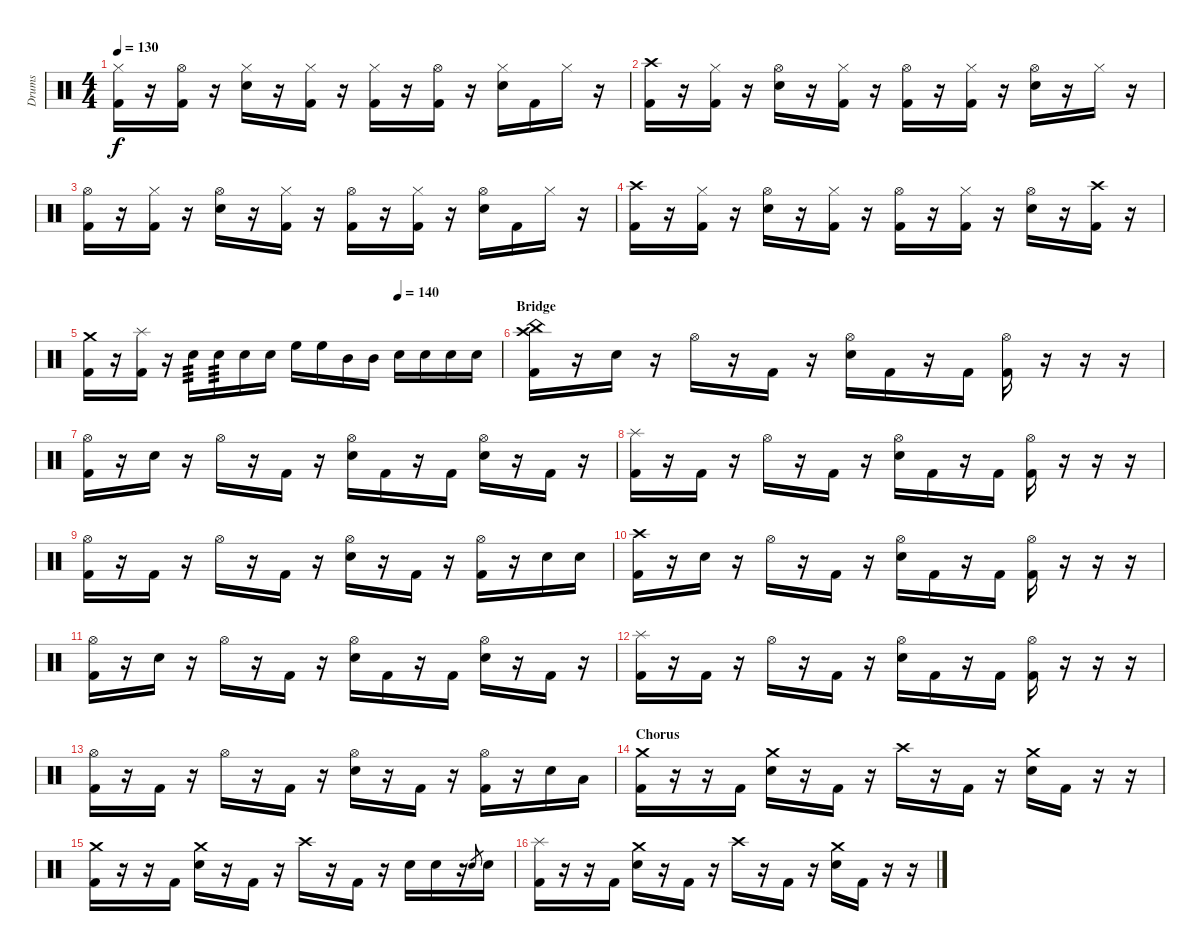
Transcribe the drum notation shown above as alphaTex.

\track ("Drums" "Drums") {instrument percussion}
\staff {score}
\articulation defaults
\ts (4 4)
\tempo 130
\clef neutral
\ks c
("Hi-Hat (closed)" "Kick (hit) 2").16{dy f} r.16 ("Hi-Hat (open)" "Kick (hit) 2").16 r.16 ("Hi-Hat (closed)" "Electric Snare (hit)").16 r.16 ("Hi-Hat (closed)" "Kick (hit) 2").16 r.16 ("Hi-Hat (closed)" "Kick (hit) 2").16 r.16 ("Hi-Hat (open)" "Kick (hit) 2").16 r.16 ("Hi-Hat (closed)" "Electric Snare (hit)").16 "Kick (hit) 2".16 "Hi-Hat (closed)".16 r.16 |
("Crash high (hit)" "Kick (hit) 2").16 r.16 ("Hi-Hat (closed)" "Kick (hit) 2").16 r.16 ("Hi-Hat (open)" "Electric Snare (hit)").16 r.16 ("Hi-Hat (closed)" "Kick (hit) 2").16 r.16 ("Hi-Hat (open)" "Kick (hit) 2").16 r.16 ("Hi-Hat (closed)" "Kick (hit) 2").16 r.16 ("Hi-Hat (open)" "Electric Snare (hit)").16 r.16 "Hi-Hat (closed)".16 r.16 |
("Hi-Hat (open)" "Kick (hit) 2").16 r.16 ("Hi-Hat (closed)" "Kick (hit) 2").16 r.16 ("Hi-Hat (open)" "Electric Snare (hit)").16 r.16 ("Hi-Hat (closed)" "Kick (hit) 2").16 r.16 ("Hi-Hat (open)" "Kick (hit) 2").16 r.16 ("Hi-Hat (closed)" "Kick (hit) 2").16 r.16 ("Hi-Hat (open)" "Electric Snare (hit)").16 "Kick (hit) 2".16 "Hi-Hat (closed)".16 r.16 |
("Crash high (hit)" "Kick (hit) 2").16 r.16 ("Hi-Hat (closed)" "Kick (hit) 2").16 r.16 ("Hi-Hat (open)" "Electric Snare (hit)").16 r.16 ("Hi-Hat (closed)" "Kick (hit) 2").16 r.16 ("Hi-Hat (open)" "Kick (hit) 2").16 r.16 ("Hi-Hat (closed)" "Kick (hit) 2").16 r.16 ("Hi-Hat (open)" "Electric Snare (hit)").16 r.16 ("Crash high (hit)" "Kick (hit) 2").16 r.16 |
\tempo (140 0.75)
("Crash medium (hit)" "Kick (hit) 2").16 r.16 ("Splash (hit)" "Kick (hit) 2").16 r.16 "Electric Snare (hit)".16{tp 3} "Electric Snare (hit)".16{tp 3} "Electric Snare (hit)".16 "Electric Snare (hit)".16 "High Floor Tom (hit)".16 "High Floor Tom (hit)".16 "Mid Tom (hit)".16 "Mid Tom (hit)".16 "Electric Snare (hit)".16 "Electric Snare (hit)".16 "Electric Snare (hit)".16 "Electric Snare (hit)".16 |
\section ("" "Bridge")
("Crash high (hit)" "China (hit)" "Kick (hit) 2").16 r.16 "Electric Snare (hit)".16 r.16 "Hi-Hat (open)".16 r.16 "Kick (hit) 2".16 r.16 ("Hi-Hat (open)" "Electric Snare (hit)").16 "Kick (hit) 2".16 r.16 "Kick (hit) 2".16 ("Hi-Hat (open)" "Kick (hit) 2").16 r.16 r.16 r.16 |
("Hi-Hat (open)" "Kick (hit) 2").16 r.16 "Electric Snare (hit)".16 r.16 "Hi-Hat (open)".16 r.16 "Kick (hit) 2".16 r.16 ("Hi-Hat (open)" "Electric Snare (hit)").16 "Kick (hit) 2".16 r.16 "Kick (hit) 2".16 ("Hi-Hat (open)" "Electric Snare (hit)").16 r.16 "Kick (hit) 2".16 r.16 |
("Splash (hit)" "Kick (hit) 2").16 r.16 "Kick (hit) 2".16 r.16 "Hi-Hat (open)".16 r.16 "Kick (hit) 2".16 r.16 ("Hi-Hat (open)" "Electric Snare (hit)").16 "Kick (hit) 2".16 r.16 "Kick (hit) 2".16 ("Hi-Hat (open)" "Kick (hit) 2").16 r.16 r.16 r.16 |
("Hi-Hat (open)" "Kick (hit) 2").16 r.16 "Kick (hit) 2".16 r.16 "Hi-Hat (open)".16 r.16 "Kick (hit) 2".16 r.16 ("Hi-Hat (open)" "Electric Snare (hit)").16 r.16 "Kick (hit) 2".16 r.16 ("Hi-Hat (open)" "Kick (hit) 2").16 r.16 "Electric Snare (hit)".16 "Electric Snare (hit)".16 |
("Crash high (hit)" "Kick (hit) 2").16 r.16 "Electric Snare (hit)".16 r.16 "Hi-Hat (open)".16 r.16 "Kick (hit) 2".16 r.16 ("Hi-Hat (open)" "Electric Snare (hit)").16 "Kick (hit) 2".16 r.16 "Kick (hit) 2".16 ("Hi-Hat (open)" "Kick (hit) 2").16 r.16 r.16 r.16 |
("Hi-Hat (open)" "Kick (hit) 2").16 r.16 "Electric Snare (hit)".16 r.16 "Hi-Hat (open)".16 r.16 "Kick (hit) 2".16 r.16 ("Hi-Hat (open)" "Electric Snare (hit)").16 "Kick (hit) 2".16 r.16 "Kick (hit) 2".16 ("Hi-Hat (open)" "Electric Snare (hit)").16 r.16 "Kick (hit) 2".16 r.16 |
("Splash (hit)" "Kick (hit) 2").16 r.16 "Kick (hit) 2".16 r.16 "Hi-Hat (open)".16 r.16 "Kick (hit) 2".16 r.16 ("Hi-Hat (open)" "Electric Snare (hit)").16 "Kick (hit) 2".16 r.16 "Kick (hit) 2".16 ("Hi-Hat (open)" "Kick (hit) 2").16 r.16 r.16 r.16 |
("Hi-Hat (open)" "Kick (hit) 2").16 r.16 "Kick (hit) 2".16 r.16 "Hi-Hat (open)".16 r.16 "Kick (hit) 2".16 r.16 ("Hi-Hat (open)" "Electric Snare (hit)").16 r.16 "Kick (hit) 2".16 r.16 ("Hi-Hat (open)" "Kick (hit) 2").16 r.16 "Electric Snare (hit)".16 "Low Tom (hit)".16 |
\section ("" "Chorus")
("Crash medium (hit)" "Kick (hit) 2").16 r.16 r.16 "Kick (hit) 2".16 ("Crash medium (hit)" "Electric Snare (hit)").16 r.16 "Kick (hit) 2".16 r.16 "Crash high (hit)".16 r.16 "Kick (hit) 2".16 r.16 ("Crash medium (hit)" "Electric Snare (hit)").16 "Kick (hit) 2".16 r.16 r.16 |
("Crash medium (hit)" "Kick (hit) 2").16 r.16 r.16 "Kick (hit) 2".16 ("Crash medium (hit)" "Electric Snare (hit)").16 r.16 "Kick (hit) 2".16 r.16 "Crash high (hit)".16 r.16 "Kick (hit) 2".16 r.16 "Electric Snare (hit)".16 "Electric Snare (hit)".16 r.16 "Electric Snare (hit)".8{gr} "Electric Snare (hit)".16 |
("Splash (hit)" "Kick (hit) 2").16 r.16 r.16 "Kick (hit) 2".16 ("Crash medium (hit)" "Electric Snare (hit)").16 r.16 "Kick (hit) 2".16 r.16 "Crash high (hit)".16 r.16 "Kick (hit) 2".16 r.16 ("Crash medium (hit)" "Electric Snare (hit)").16 "Kick (hit) 2".16 r.16 r.16
